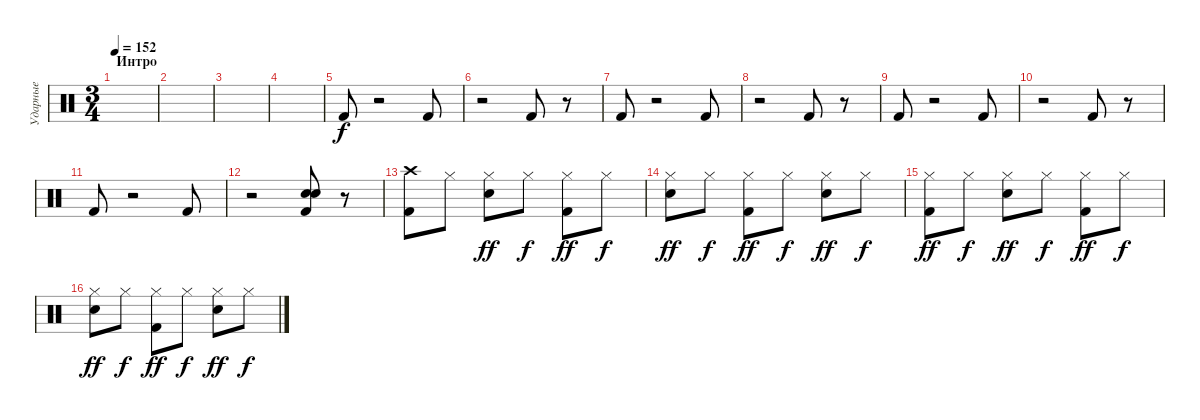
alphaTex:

\track ("Ударные" "Ударные") {instrument percussion}
\staff {score}
\articulation defaults
\ts (3 4)
\section ("" "Интро")
\tempo 152
\clef neutral
\ks c
|
|
|
|
"Kick (hit) 2".8 r.2 "Kick (hit) 2".8 |
r.2 "Kick (hit) 2".8 r.8 |
"Kick (hit) 2".8 r.2 "Kick (hit) 2".8 |
r.2 "Kick (hit) 2".8 r.8 |
"Kick (hit) 2".8 r.2 "Kick (hit) 2".8 |
r.2 "Kick (hit) 2".8 r.8 |
"Kick (hit) 2".8 r.2 "Kick (hit) 2".8 |
r.2 ("Snare (hit) 2" "Snare (hit) 2" "Kick (hit) 2").8 r.8 |
("Crash high (hit)" "Kick (hit) 2").8 "Hi-Hat (closed)".8 ("Hi-Hat (closed)" "Snare (hit) 2").8{dy ff} "Hi-Hat (closed)".8{dy f} ("Hi-Hat (closed)" "Kick (hit) 2").8{dy ff} "Hi-Hat (closed)".8{dy f} |
("Hi-Hat (closed)" "Snare (hit) 2").8{dy ff} "Hi-Hat (closed)".8{dy f} ("Hi-Hat (closed)" "Kick (hit) 2").8{dy ff} "Hi-Hat (closed)".8{dy f} ("Hi-Hat (closed)" "Snare (hit) 2").8{dy ff} "Hi-Hat (closed)".8{dy f} |
("Hi-Hat (closed)" "Kick (hit) 2").8{dy ff} "Hi-Hat (closed)".8{dy f} ("Hi-Hat (closed)" "Snare (hit) 2").8{dy ff} "Hi-Hat (closed)".8{dy f} ("Hi-Hat (closed)" "Kick (hit) 2").8{dy ff} "Hi-Hat (closed)".8{dy f} |
("Hi-Hat (closed)" "Snare (hit) 2").8{dy ff} "Hi-Hat (closed)".8{dy f} ("Hi-Hat (closed)" "Kick (hit) 2").8{dy ff} "Hi-Hat (closed)".8{dy f} ("Hi-Hat (closed)" "Snare (hit) 2").8{dy ff} "Hi-Hat (closed)".8{dy f}
